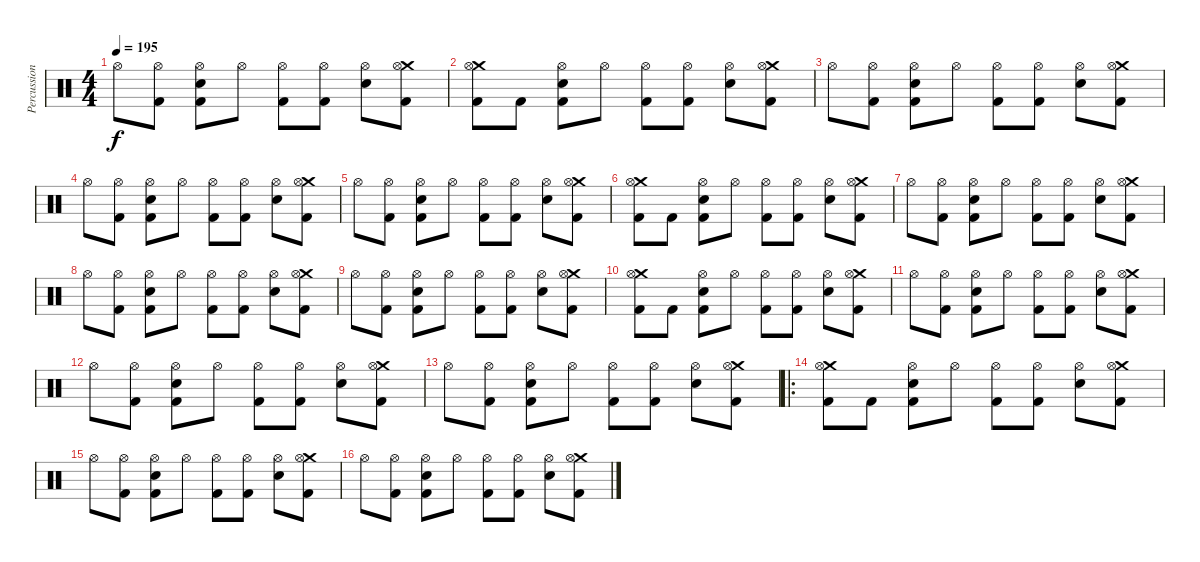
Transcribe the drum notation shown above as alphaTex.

\track ("Percussion" "Percussion") {instrument percussion}
\staff {score}
\articulation defaults
\ts (4 4)
\tempo 195
\clef neutral
\ks c "Hi-Hat (open)".8{dy f}
("Hi-Hat (open)" "Kick (hit) 2").8 ("Hi-Hat (open)" "Snare (hit) 2" "Kick (hit) 2").8 "Hi-Hat (open)".8 ("Hi-Hat (open)" "Kick (hit) 2").8 ("Hi-Hat (open)" "Kick (hit) 2").8 ("Hi-Hat (open)" "Snare (hit) 2").8 ("Crash medium (hit)" "Hi-Hat (open)" "Kick (hit) 2").8 |
("Crash medium (hit)" "Hi-Hat (open)" "Kick (hit) 2").8 "Kick (hit) 2".8 ("Hi-Hat (open)" "Snare (hit) 2" "Kick (hit) 2").8 "Hi-Hat (open)".8 ("Hi-Hat (open)" "Kick (hit) 2").8 ("Hi-Hat (open)" "Kick (hit) 2").8 ("Hi-Hat (open)" "Snare (hit) 2").8 ("Crash medium (hit)" "Hi-Hat (open)" "Kick (hit) 2").8 |
"Hi-Hat (open)".8 ("Hi-Hat (open)" "Kick (hit) 2").8 ("Hi-Hat (open)" "Snare (hit) 2" "Kick (hit) 2").8 "Hi-Hat (open)".8 ("Hi-Hat (open)" "Kick (hit) 2").8 ("Hi-Hat (open)" "Kick (hit) 2").8 ("Hi-Hat (open)" "Snare (hit) 2").8 ("Crash medium (hit)" "Hi-Hat (open)" "Kick (hit) 2").8 |
"Hi-Hat (open)".8 ("Hi-Hat (open)" "Kick (hit) 2").8 ("Hi-Hat (open)" "Snare (hit) 2" "Kick (hit) 2").8 "Hi-Hat (open)".8 ("Hi-Hat (open)" "Kick (hit) 2").8 ("Hi-Hat (open)" "Kick (hit) 2").8 ("Hi-Hat (open)" "Snare (hit) 2").8 ("Crash medium (hit)" "Hi-Hat (open)" "Kick (hit) 2").8 |
"Hi-Hat (open)".8 ("Hi-Hat (open)" "Kick (hit) 2").8 ("Hi-Hat (open)" "Snare (hit) 2" "Kick (hit) 2").8 "Hi-Hat (open)".8 ("Hi-Hat (open)" "Kick (hit) 2").8 ("Hi-Hat (open)" "Kick (hit) 2").8 ("Hi-Hat (open)" "Snare (hit) 2").8 ("Crash medium (hit)" "Hi-Hat (open)" "Kick (hit) 2").8 |
("Crash medium (hit)" "Hi-Hat (open)" "Kick (hit) 2").8 "Kick (hit) 2".8 ("Hi-Hat (open)" "Snare (hit) 2" "Kick (hit) 2").8 "Hi-Hat (open)".8 ("Hi-Hat (open)" "Kick (hit) 2").8 ("Hi-Hat (open)" "Kick (hit) 2").8 ("Hi-Hat (open)" "Snare (hit) 2").8 ("Crash medium (hit)" "Hi-Hat (open)" "Kick (hit) 2").8 |
"Hi-Hat (open)".8 ("Hi-Hat (open)" "Kick (hit) 2").8 ("Hi-Hat (open)" "Snare (hit) 2" "Kick (hit) 2").8 "Hi-Hat (open)".8 ("Hi-Hat (open)" "Kick (hit) 2").8 ("Hi-Hat (open)" "Kick (hit) 2").8 ("Hi-Hat (open)" "Snare (hit) 2").8 ("Crash medium (hit)" "Hi-Hat (open)" "Kick (hit) 2").8 |
"Hi-Hat (open)".8 ("Hi-Hat (open)" "Kick (hit) 2").8 ("Hi-Hat (open)" "Snare (hit) 2" "Kick (hit) 2").8 "Hi-Hat (open)".8 ("Hi-Hat (open)" "Kick (hit) 2").8 ("Hi-Hat (open)" "Kick (hit) 2").8 ("Hi-Hat (open)" "Snare (hit) 2").8 ("Crash medium (hit)" "Hi-Hat (open)" "Kick (hit) 2").8 |
"Hi-Hat (open)".8 ("Hi-Hat (open)" "Kick (hit) 2").8 ("Hi-Hat (open)" "Snare (hit) 2" "Kick (hit) 2").8 "Hi-Hat (open)".8 ("Hi-Hat (open)" "Kick (hit) 2").8 ("Hi-Hat (open)" "Kick (hit) 2").8 ("Hi-Hat (open)" "Snare (hit) 2").8 ("Crash medium (hit)" "Hi-Hat (open)" "Kick (hit) 2").8 |
("Crash medium (hit)" "Hi-Hat (open)" "Kick (hit) 2").8 "Kick (hit) 2".8 ("Hi-Hat (open)" "Snare (hit) 2" "Kick (hit) 2").8 "Hi-Hat (open)".8 ("Hi-Hat (open)" "Kick (hit) 2").8 ("Hi-Hat (open)" "Kick (hit) 2").8 ("Hi-Hat (open)" "Snare (hit) 2").8 ("Crash medium (hit)" "Hi-Hat (open)" "Kick (hit) 2").8 |
"Hi-Hat (open)".8 ("Hi-Hat (open)" "Kick (hit) 2").8 ("Hi-Hat (open)" "Snare (hit) 2" "Kick (hit) 2").8 "Hi-Hat (open)".8 ("Hi-Hat (open)" "Kick (hit) 2").8 ("Hi-Hat (open)" "Kick (hit) 2").8 ("Hi-Hat (open)" "Snare (hit) 2").8 ("Crash medium (hit)" "Hi-Hat (open)" "Kick (hit) 2").8 |
"Hi-Hat (open)".8 ("Hi-Hat (open)" "Kick (hit) 2").8 ("Hi-Hat (open)" "Snare (hit) 2" "Kick (hit) 2").8 "Hi-Hat (open)".8 ("Hi-Hat (open)" "Kick (hit) 2").8 ("Hi-Hat (open)" "Kick (hit) 2").8 ("Hi-Hat (open)" "Snare (hit) 2").8 ("Crash medium (hit)" "Hi-Hat (open)" "Kick (hit) 2").8 |
"Hi-Hat (open)".8 ("Hi-Hat (open)" "Kick (hit) 2").8 ("Hi-Hat (open)" "Snare (hit) 2" "Kick (hit) 2").8 "Hi-Hat (open)".8 ("Hi-Hat (open)" "Kick (hit) 2").8 ("Hi-Hat (open)" "Kick (hit) 2").8 ("Hi-Hat (open)" "Snare (hit) 2").8 ("Crash medium (hit)" "Hi-Hat (open)" "Kick (hit) 2").8 |
\ro
("Crash medium (hit)" "Hi-Hat (open)" "Kick (hit) 2").8 "Kick (hit) 2".8 ("Hi-Hat (open)" "Snare (hit) 2" "Kick (hit) 2").8 "Hi-Hat (open)".8 ("Hi-Hat (open)" "Kick (hit) 2").8 ("Hi-Hat (open)" "Kick (hit) 2").8 ("Hi-Hat (open)" "Snare (hit) 2").8 ("Crash medium (hit)" "Hi-Hat (open)" "Kick (hit) 2").8 |
"Hi-Hat (open)".8 ("Hi-Hat (open)" "Kick (hit) 2").8 ("Hi-Hat (open)" "Snare (hit) 2" "Kick (hit) 2").8 "Hi-Hat (open)".8 ("Hi-Hat (open)" "Kick (hit) 2").8 ("Hi-Hat (open)" "Kick (hit) 2").8 ("Hi-Hat (open)" "Snare (hit) 2").8 ("Crash medium (hit)" "Hi-Hat (open)" "Kick (hit) 2").8 |
"Hi-Hat (open)".8 ("Hi-Hat (open)" "Kick (hit) 2").8 ("Hi-Hat (open)" "Snare (hit) 2" "Kick (hit) 2").8 "Hi-Hat (open)".8 ("Hi-Hat (open)" "Kick (hit) 2").8 ("Hi-Hat (open)" "Kick (hit) 2").8 ("Hi-Hat (open)" "Snare (hit) 2").8 ("Crash medium (hit)" "Hi-Hat (open)" "Kick (hit) 2").8
